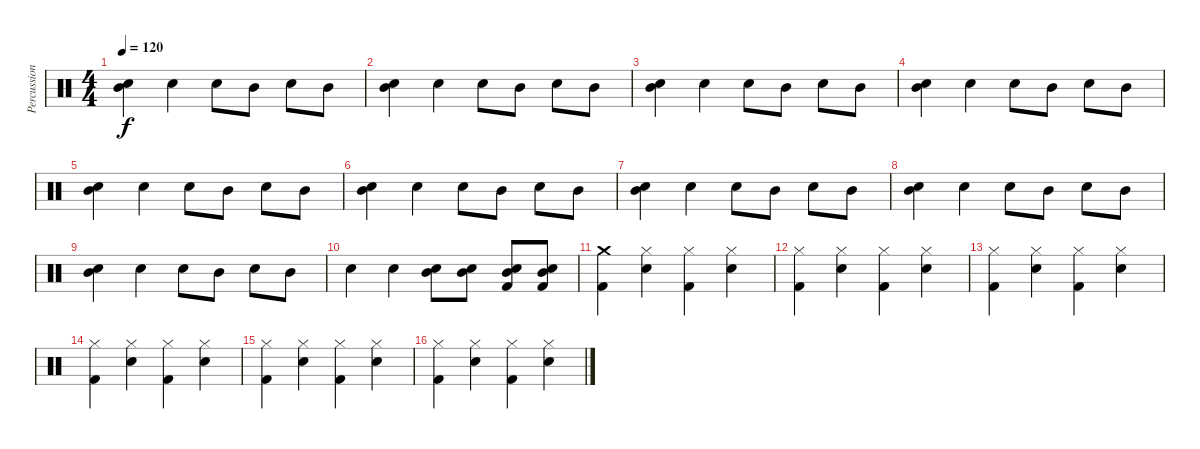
\track ("Percussion" "Percussion") {instrument percussion}
\staff {score}
\articulation defaults
\ts (4 4)
\tempo 120
\clef neutral
\ks c
("Electric Snare (hit)" "Mid Tom (hit)").4{dy f} "Electric Snare (hit)".4 "Electric Snare (hit)".8 "Mid Tom (hit)".8 "Electric Snare (hit)".8 "Mid Tom (hit)".8 |
("Electric Snare (hit)" "Mid Tom (hit)").4 "Electric Snare (hit)".4 "Electric Snare (hit)".8 "Mid Tom (hit)".8 "Electric Snare (hit)".8 "Mid Tom (hit)".8 |
("Electric Snare (hit)" "Mid Tom (hit)").4 "Electric Snare (hit)".4 "Electric Snare (hit)".8 "Mid Tom (hit)".8 "Electric Snare (hit)".8 "Mid Tom (hit)".8 |
("Electric Snare (hit)" "Mid Tom (hit)").4 "Electric Snare (hit)".4 "Electric Snare (hit)".8 "Mid Tom (hit)".8 "Electric Snare (hit)".8 "Mid Tom (hit)".8 |
("Electric Snare (hit)" "Mid Tom (hit)").4 "Electric Snare (hit)".4 "Electric Snare (hit)".8 "Mid Tom (hit)".8 "Electric Snare (hit)".8 "Mid Tom (hit)".8 |
("Electric Snare (hit)" "Mid Tom (hit)").4 "Electric Snare (hit)".4 "Electric Snare (hit)".8 "Mid Tom (hit)".8 "Electric Snare (hit)".8 "Mid Tom (hit)".8 |
("Electric Snare (hit)" "Mid Tom (hit)").4 "Electric Snare (hit)".4 "Electric Snare (hit)".8 "Mid Tom (hit)".8 "Electric Snare (hit)".8 "Mid Tom (hit)".8 |
("Electric Snare (hit)" "Mid Tom (hit)").4 "Electric Snare (hit)".4 "Electric Snare (hit)".8 "Mid Tom (hit)".8 "Electric Snare (hit)".8 "Mid Tom (hit)".8 |
("Electric Snare (hit)" "Mid Tom (hit)").4 "Electric Snare (hit)".4 "Electric Snare (hit)".8 "Mid Tom (hit)".8 "Electric Snare (hit)".8 "Mid Tom (hit)".8 |
"Electric Snare (hit)".4 "Electric Snare (hit)".4 ("Electric Snare (hit)" "Mid Tom (hit)").8 ("Electric Snare (hit)" "Mid Tom (hit)").8 ("Electric Snare (hit)" "Kick (hit) 2" "Mid Tom (hit)").8 ("Electric Snare (hit)" "Kick (hit) 2" "Mid Tom (hit)").8 |
("Kick (hit) 2" "Crash medium (hit)").4 ("Electric Snare (hit)" "Hi-Hat (closed)").4 ("Hi-Hat (closed)" "Kick (hit) 2").4 ("Electric Snare (hit)" "Hi-Hat (closed)").4 |
("Hi-Hat (closed)" "Kick (hit) 2").4 ("Electric Snare (hit)" "Hi-Hat (closed)").4 ("Hi-Hat (closed)" "Kick (hit) 2").4 ("Electric Snare (hit)" "Hi-Hat (closed)").4 |
("Hi-Hat (closed)" "Kick (hit) 2").4 ("Electric Snare (hit)" "Hi-Hat (closed)").4 ("Hi-Hat (closed)" "Kick (hit) 2").4 ("Electric Snare (hit)" "Hi-Hat (closed)").4 |
("Hi-Hat (closed)" "Kick (hit) 2").4 ("Electric Snare (hit)" "Hi-Hat (closed)").4 ("Hi-Hat (closed)" "Kick (hit) 2").4 ("Electric Snare (hit)" "Hi-Hat (closed)").4 |
("Hi-Hat (closed)" "Kick (hit) 2").4 ("Electric Snare (hit)" "Hi-Hat (closed)").4 ("Hi-Hat (closed)" "Kick (hit) 2").4 ("Electric Snare (hit)" "Hi-Hat (closed)").4 |
("Hi-Hat (closed)" "Kick (hit) 2").4 ("Electric Snare (hit)" "Hi-Hat (closed)").4 ("Hi-Hat (closed)" "Kick (hit) 2").4 ("Electric Snare (hit)" "Hi-Hat (closed)").4
